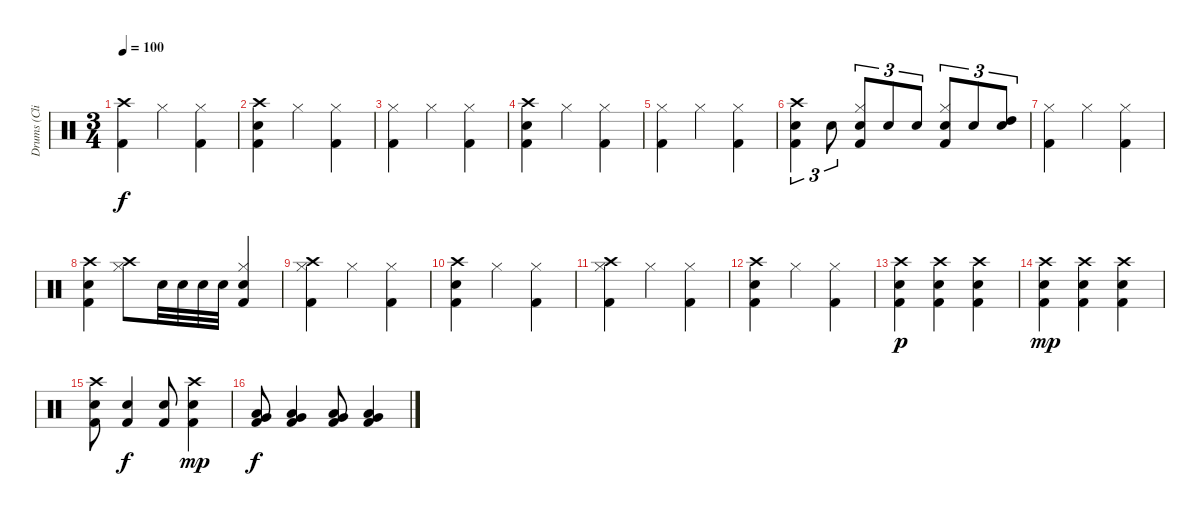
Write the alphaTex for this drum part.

\track ("Drums (Clive Bunker)" "Drums (Cli") {instrument percussion}
\staff {score}
\articulation defaults
\ts (3 4)
\tempo 100
\clef neutral
\ks c
("Crash high (hit)" "Kick (hit) 2").4{dy f} "Hi-Hat (closed)".4 ("Hi-Hat (closed)" "Kick (hit) 2").4 |
("Crash high (hit)" "Snare (hit) 2" "Kick (hit) 2").4 "Hi-Hat (closed)".4 ("Hi-Hat (closed)" "Kick (hit) 2").4 |
("Hi-Hat (closed)" "Kick (hit) 2").4 "Hi-Hat (closed)".4 ("Hi-Hat (closed)" "Kick (hit) 2").4 |
("Crash high (hit)" "Snare (hit) 2" "Kick (hit) 2").4 "Hi-Hat (closed)".4 ("Hi-Hat (closed)" "Kick (hit) 2").4 |
("Hi-Hat (closed)" "Kick (hit) 2").4 "Hi-Hat (closed)".4 ("Hi-Hat (closed)" "Kick (hit) 2").4 |
("Crash high (hit)" "Snare (hit) 2" "Kick (hit) 2").4{tu (3 2)} "Electric Snare (hit)".8{tu (3 2)} ("Hi-Hat (closed)" "Snare (hit) 2" "Kick (hit) 2").8{tu (3 2)} "Snare (hit) 2".8{tu (3 2)} "Electric Snare (hit)".8{tu (3 2)} ("Hi-Hat (closed)" "Snare (hit) 2" "Kick (hit) 2").8{tu (3 2)} "Snare (hit) 2".8{tu (3 2)} ("Electric Snare (hit)" "High Tom (hit)").8{tu (3 2)} |
("Hi-Hat (closed)" "Kick (hit) 2").4 "Hi-Hat (closed)".4 ("Hi-Hat (closed)" "Kick (hit) 2").4 |
("Crash high (hit)" "Snare (hit) 2" "Kick (hit) 2").4 ("Crash high (hit)" "Hi-Hat (closed)").8 "Snare (hit) 2".32 "Snare (hit) 2".32 "Snare (hit) 2".32 "Snare (hit) 2".32 ("Hi-Hat (closed)" "Snare (hit) 2" "Kick (hit) 2").4 |
("Crash high (hit)" "Hi-Hat (closed)" "Kick (hit) 2").4 "Hi-Hat (closed)".4 ("Hi-Hat (closed)" "Kick (hit) 2").4 |
("Crash high (hit)" "Snare (hit) 2" "Kick (hit) 2").4 "Hi-Hat (closed)".4 ("Hi-Hat (closed)" "Kick (hit) 2").4 |
("Crash high (hit)" "Hi-Hat (closed)" "Kick (hit) 2").4 "Hi-Hat (closed)".4 ("Hi-Hat (closed)" "Kick (hit) 2").4 |
("Crash high (hit)" "Snare (hit) 2" "Kick (hit) 2").4 "Hi-Hat (closed)".4 ("Hi-Hat (closed)" "Kick (hit) 2").4 |
("Crash high (hit)" "Snare (hit) 2" "Kick (hit) 2").4{dy p} ("Crash high (hit)" "Snare (hit) 2" "Kick (hit) 2").4 ("Crash high (hit)" "Snare (hit) 2" "Kick (hit) 2").4 |
("Crash high (hit)" "Snare (hit) 2" "Kick (hit) 2").4{dy mp} ("Crash high (hit)" "Snare (hit) 2" "Kick (hit) 2").4 ("Crash high (hit)" "Snare (hit) 2" "Kick (hit) 2").4 |
("Crash high (hit)" "Snare (hit) 2" "Kick (hit) 2").8 ("Snare (hit) 2" "Kick (hit) 2").4{dy f} ("Snare (hit) 2" "Kick (hit) 2").8 ("Crash high (hit)" "Snare (hit) 2" "Kick (hit) 2").4{dy mp} |
("Low Tom (hit)" "Very Low Tom (hit)" "Kick (hit) 2").8{dy f} ("Low Tom (hit)" "Very Low Tom (hit)" "Kick (hit) 2").4 ("Low Tom (hit)" "Very Low Tom (hit)" "Kick (hit) 2").8 ("Low Tom (hit)" "Very Low Tom (hit)" "Kick (hit) 2").4
